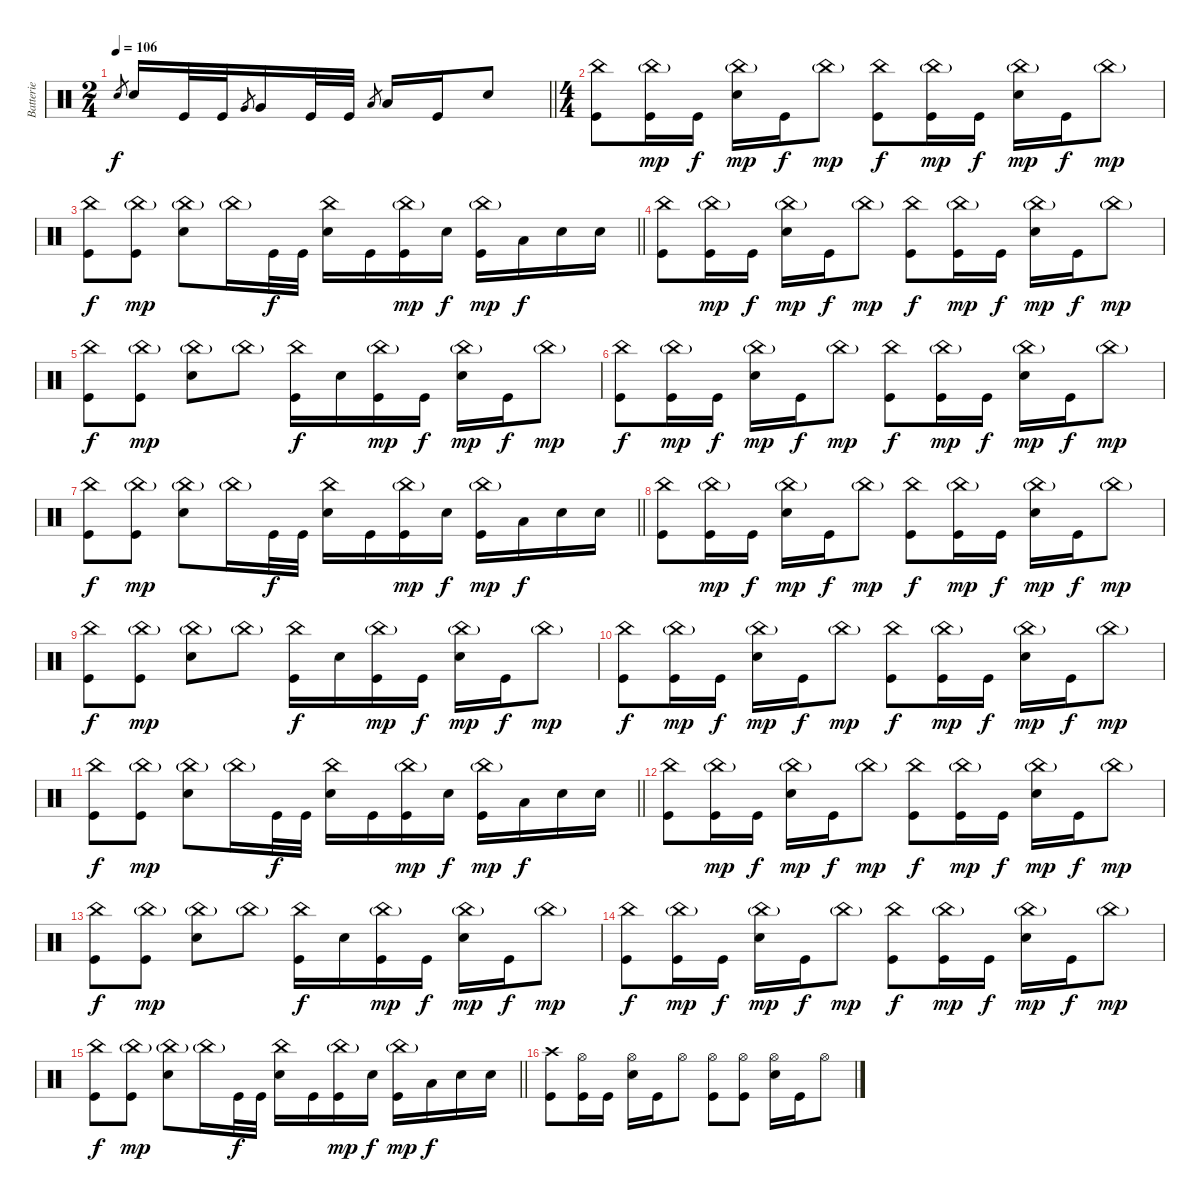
\track ("Batterie" "Batterie") {instrument percussion}
\staff {score}
\articulation defaults
\ts (2 4)
\tempo 106
\clef neutral
\barLineRight lightlight
\ks c "Electric Snare (hit)".8{gr dy f} "Electric Snare (hit)".16 "Kick (hit)".32 "Kick (hit)".32 "Very Low Tom (hit)".8{gr} "Very Low Tom (hit)".16 "Kick (hit)".32 "Kick (hit)".32 "Low Floor Tom (hit)".8{gr} "Low Floor Tom (hit)".16 "Kick (hit)".16 "Electric Snare (hit)".8
|
\ts (4 4)
("China (hit)" "Kick (hit)").8 ("China (hit)"{g} "Kick (hit)").16{dy mp} "Kick (hit)".16{dy f} ("China (hit)"{g} "Electric Snare (hit)").16{dy mp} "Kick (hit)".16{dy f} "China (hit)"{g}.8{dy mp} ("China (hit)" "Kick (hit)").8{dy f} ("China (hit)"{g} "Kick (hit)").16{dy mp} "Kick (hit)".16{dy f} ("China (hit)"{g} "Electric Snare (hit)").16{dy mp} "Kick (hit)".16{dy f} "China (hit)"{g}.8{dy mp} |
\barLineRight lightlight
("China (hit)" "Kick (hit)").8{dy f} ("China (hit)"{g} "Kick (hit)").8{dy mp} ("China (hit)"{g} "Electric Snare (hit)").8 "China (hit)"{g}.16 "Kick (hit)".32{dy f} "Kick (hit)".32 ("China (hit)" "Electric Snare (hit)").16 "Kick (hit)".16 ("China (hit)"{g} "Kick (hit)").16{dy mp} "Electric Snare (hit)".16{dy f} ("China (hit)"{g} "Kick (hit)").16{dy mp} "Low Tom (hit)".16{dy f} "Electric Snare (hit)".16 "Electric Snare (hit)".16 |
("China (hit)" "Kick (hit)").8 ("China (hit)"{g} "Kick (hit)").16{dy mp} "Kick (hit)".16{dy f} ("China (hit)"{g} "Electric Snare (hit)").16{dy mp} "Kick (hit)".16{dy f} "China (hit)"{g}.8{dy mp} ("China (hit)" "Kick (hit)").8{dy f} ("China (hit)"{g} "Kick (hit)").16{dy mp} "Kick (hit)".16{dy f} ("China (hit)"{g} "Electric Snare (hit)").16{dy mp} "Kick (hit)".16{dy f} "China (hit)"{g}.8{dy mp} |
("China (hit)" "Kick (hit)").8{dy f} ("China (hit)"{g} "Kick (hit)").8{dy mp} ("China (hit)"{g} "Electric Snare (hit)").8 "China (hit)"{g}.8 ("China (hit)" "Kick (hit)").16{dy f} "Electric Snare (hit)".16 ("China (hit)"{g} "Kick (hit)").16{dy mp} "Kick (hit)".16{dy f} ("China (hit)"{g} "Electric Snare (hit)").16{dy mp} "Kick (hit)".16{dy f} "China (hit)"{g}.8{dy mp} |
("China (hit)" "Kick (hit)").8{dy f} ("China (hit)"{g} "Kick (hit)").16{dy mp} "Kick (hit)".16{dy f} ("China (hit)"{g} "Electric Snare (hit)").16{dy mp} "Kick (hit)".16{dy f} "China (hit)"{g}.8{dy mp} ("China (hit)" "Kick (hit)").8{dy f} ("China (hit)"{g} "Kick (hit)").16{dy mp} "Kick (hit)".16{dy f} ("China (hit)"{g} "Electric Snare (hit)").16{dy mp} "Kick (hit)".16{dy f} "China (hit)"{g}.8{dy mp} |
\barLineRight lightlight
("China (hit)" "Kick (hit)").8{dy f} ("China (hit)"{g} "Kick (hit)").8{dy mp} ("China (hit)"{g} "Electric Snare (hit)").8 "China (hit)"{g}.16 "Kick (hit)".32{dy f} "Kick (hit)".32 ("China (hit)" "Electric Snare (hit)").16 "Kick (hit)".16 ("China (hit)"{g} "Kick (hit)").16{dy mp} "Electric Snare (hit)".16{dy f} ("China (hit)"{g} "Kick (hit)").16{dy mp} "Low Tom (hit)".16{dy f} "Electric Snare (hit)".16 "Electric Snare (hit)".16 |
("China (hit)" "Kick (hit)").8 ("China (hit)"{g} "Kick (hit)").16{dy mp} "Kick (hit)".16{dy f} ("China (hit)"{g} "Electric Snare (hit)").16{dy mp} "Kick (hit)".16{dy f} "China (hit)"{g}.8{dy mp} ("China (hit)" "Kick (hit)").8{dy f} ("China (hit)"{g} "Kick (hit)").16{dy mp} "Kick (hit)".16{dy f} ("China (hit)"{g} "Electric Snare (hit)").16{dy mp} "Kick (hit)".16{dy f} "China (hit)"{g}.8{dy mp} |
("China (hit)" "Kick (hit)").8{dy f} ("China (hit)"{g} "Kick (hit)").8{dy mp} ("China (hit)"{g} "Electric Snare (hit)").8 "China (hit)"{g}.8 ("China (hit)" "Kick (hit)").16{dy f} "Electric Snare (hit)".16 ("China (hit)"{g} "Kick (hit)").16{dy mp} "Kick (hit)".16{dy f} ("China (hit)"{g} "Electric Snare (hit)").16{dy mp} "Kick (hit)".16{dy f} "China (hit)"{g}.8{dy mp} |
("China (hit)" "Kick (hit)").8{dy f} ("China (hit)"{g} "Kick (hit)").16{dy mp} "Kick (hit)".16{dy f} ("China (hit)"{g} "Electric Snare (hit)").16{dy mp} "Kick (hit)".16{dy f} "China (hit)"{g}.8{dy mp} ("China (hit)" "Kick (hit)").8{dy f} ("China (hit)"{g} "Kick (hit)").16{dy mp} "Kick (hit)".16{dy f} ("China (hit)"{g} "Electric Snare (hit)").16{dy mp} "Kick (hit)".16{dy f} "China (hit)"{g}.8{dy mp} |
\barLineRight lightlight
("China (hit)" "Kick (hit)").8{dy f} ("China (hit)"{g} "Kick (hit)").8{dy mp} ("China (hit)"{g} "Electric Snare (hit)").8 "China (hit)"{g}.16 "Kick (hit)".32{dy f} "Kick (hit)".32 ("China (hit)" "Electric Snare (hit)").16 "Kick (hit)".16 ("China (hit)"{g} "Kick (hit)").16{dy mp} "Electric Snare (hit)".16{dy f} ("China (hit)"{g} "Kick (hit)").16{dy mp} "Low Tom (hit)".16{dy f} "Electric Snare (hit)".16 "Electric Snare (hit)".16 |
("China (hit)" "Kick (hit)").8 ("China (hit)"{g} "Kick (hit)").16{dy mp} "Kick (hit)".16{dy f} ("China (hit)"{g} "Electric Snare (hit)").16{dy mp} "Kick (hit)".16{dy f} "China (hit)"{g}.8{dy mp} ("China (hit)" "Kick (hit)").8{dy f} ("China (hit)"{g} "Kick (hit)").16{dy mp} "Kick (hit)".16{dy f} ("China (hit)"{g} "Electric Snare (hit)").16{dy mp} "Kick (hit)".16{dy f} "China (hit)"{g}.8{dy mp} |
("China (hit)" "Kick (hit)").8{dy f} ("China (hit)"{g} "Kick (hit)").8{dy mp} ("China (hit)"{g} "Electric Snare (hit)").8 "China (hit)"{g}.8 ("China (hit)" "Kick (hit)").16{dy f} "Electric Snare (hit)".16 ("China (hit)"{g} "Kick (hit)").16{dy mp} "Kick (hit)".16{dy f} ("China (hit)"{g} "Electric Snare (hit)").16{dy mp} "Kick (hit)".16{dy f} "China (hit)"{g}.8{dy mp} |
("China (hit)" "Kick (hit)").8{dy f} ("China (hit)"{g} "Kick (hit)").16{dy mp} "Kick (hit)".16{dy f} ("China (hit)"{g} "Electric Snare (hit)").16{dy mp} "Kick (hit)".16{dy f} "China (hit)"{g}.8{dy mp} ("China (hit)" "Kick (hit)").8{dy f} ("China (hit)"{g} "Kick (hit)").16{dy mp} "Kick (hit)".16{dy f} ("China (hit)"{g} "Electric Snare (hit)").16{dy mp} "Kick (hit)".16{dy f} "China (hit)"{g}.8{dy mp} |
\barLineRight lightlight
("China (hit)" "Kick (hit)").8{dy f} ("China (hit)"{g} "Kick (hit)").8{dy mp} ("China (hit)"{g} "Electric Snare (hit)").8 "China (hit)"{g}.16 "Kick (hit)".32{dy f} "Kick (hit)".32 ("China (hit)" "Electric Snare (hit)").16 "Kick (hit)".16 ("China (hit)"{g} "Kick (hit)").16{dy mp} "Electric Snare (hit)".16{dy f} ("China (hit)"{g} "Kick (hit)").16{dy mp} "Low Tom (hit)".16{dy f} "Electric Snare (hit)".16 "Electric Snare (hit)".16 |
("Crash high (hit)" "Kick (hit)").8 ("Hi-Hat (open)" "Kick (hit)").16 "Kick (hit)".16 ("Hi-Hat (open)" "Electric Snare (hit)").16 "Kick (hit)".16 "Hi-Hat (open)".8 ("Hi-Hat (open)" "Kick (hit)").8 ("Hi-Hat (open)" "Kick (hit)").8 ("Hi-Hat (open)" "Electric Snare (hit)").16 "Kick (hit)".16 "Hi-Hat (open)".8
